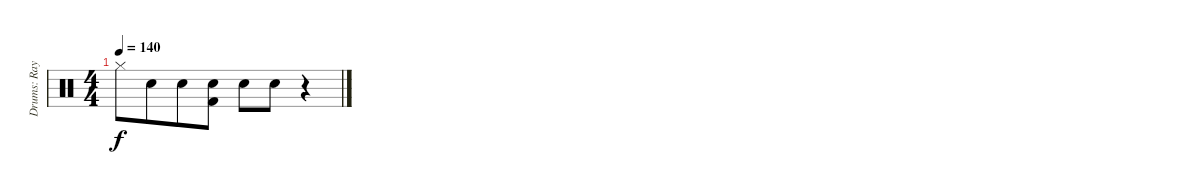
\track ("Drums: Ray Cooper" "Drums: Ray") {instrument percussion}
\staff {score}
\articulation defaults
\ts (4 4)
\tempo 140
\clef neutral
\ks c "Hi-Hat (closed)".8{dy f} "Snare (hit) 2".8{beam merge} "Snare (hit) 2".8
("Snare (hit) 2" "Kick (hit) 2").8 "Snare (hit) 2".8 "Snare (hit) 2".8 r.4
